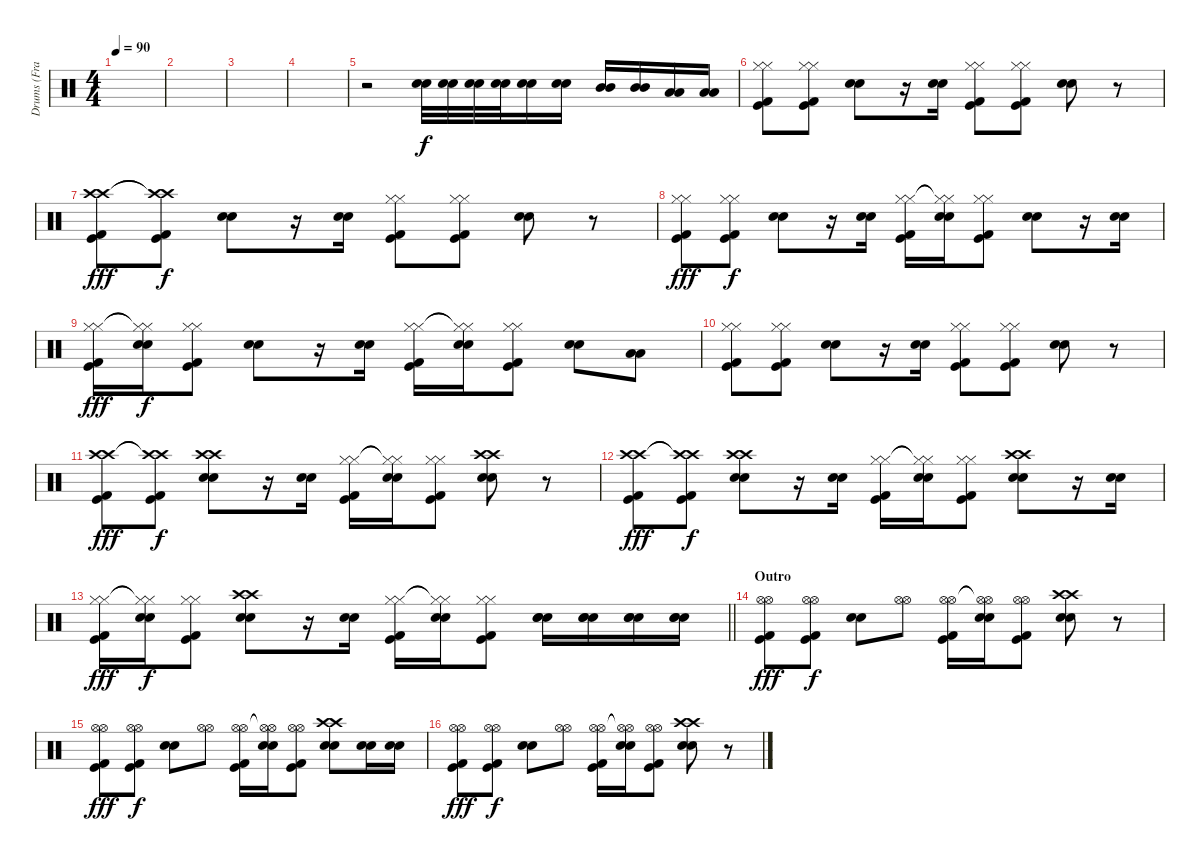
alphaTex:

\track ("Drums (Frank Ferrer)" "Drums (Fra") {instrument percussion}
\staff {score}
\articulation defaults
\ts (4 4)
\tempo 90
\clef neutral
\ks c
|
|
|
|
r.2 ("Snare (hit) 2" "Snare (hit) 2").32 ("Snare (hit) 2" "Snare (hit) 2").32 ("Snare (hit) 2" "Snare (hit) 2").32 ("Snare (hit) 2" "Snare (hit) 2").32 ("Snare (hit) 2" "Snare (hit) 2").16 ("Snare (hit) 2" "Snare (hit) 2").16 ("Mid Tom (hit)" "Mid Tom (hit)").16 ("Mid Tom (hit)" "Mid Tom (hit)").16 ("Low Tom (hit)" "Low Tom (hit)").16 ("Low Tom (hit)" "Low Tom (hit)").16 |
("Hi-Hat (closed)" "Hi-Hat (closed)" "Kick (hit)" "Kick (hit) 2").8 ("Hi-Hat (closed)" "Hi-Hat (closed)" "Kick (hit)" "Kick (hit) 2").8 ("Snare (hit) 2" "Snare (hit) 2").8 r.16 ("Snare (hit) 2" "Snare (hit) 2").16 ("Hi-Hat (closed)" "Hi-Hat (closed)" "Kick (hit)" "Kick (hit) 2").8 ("Hi-Hat (closed)" "Hi-Hat (closed)" "Kick (hit)" "Kick (hit) 2").8 ("Snare (hit) 2" "Snare (hit) 2").8 r.8 |
("Crash high (hit)" "Crash high (hit)" "Kick (hit)" "Kick (hit) 2").8{dy fff} ("Crash high (hit)"{t} "Crash high (hit)"{t} "Kick (hit)" "Kick (hit) 2").8{dy f} ("Snare (hit) 2" "Snare (hit) 2").8 r.16 ("Snare (hit) 2" "Snare (hit) 2").16 ("Hi-Hat (closed)" "Hi-Hat (closed)" "Kick (hit)" "Kick (hit) 2").8 ("Hi-Hat (closed)" "Hi-Hat (closed)" "Kick (hit)" "Kick (hit) 2").8 ("Snare (hit) 2" "Snare (hit) 2").8 r.8 |
("Hi-Hat (closed)" "Hi-Hat (closed)" "Kick (hit)" "Kick (hit) 2").8{dy fff} ("Hi-Hat (closed)" "Hi-Hat (closed)" "Kick (hit)" "Kick (hit) 2").8{dy f} ("Snare (hit) 2" "Snare (hit) 2").8 r.16 ("Snare (hit) 2" "Snare (hit) 2").16 ("Hi-Hat (closed)" "Hi-Hat (closed)" "Kick (hit)" "Kick (hit) 2").16 ("Hi-Hat (closed)"{t} "Hi-Hat (closed)"{t} "Snare (hit) 2" "Snare (hit) 2").16 ("Hi-Hat (closed)" "Hi-Hat (closed)" "Kick (hit)" "Kick (hit) 2").8 ("Snare (hit) 2" "Snare (hit) 2").8 r.16 ("Snare (hit) 2" "Snare (hit) 2").16 |
("Hi-Hat (closed)" "Hi-Hat (closed)" "Kick (hit)" "Kick (hit) 2").16{dy fff} ("Hi-Hat (closed)"{t} "Hi-Hat (closed)"{t} "Snare (hit) 2" "Snare (hit) 2").16{dy f} ("Hi-Hat (closed)" "Hi-Hat (closed)" "Kick (hit)" "Kick (hit) 2").8 ("Snare (hit) 2" "Snare (hit) 2").8 r.16 ("Snare (hit) 2" "Snare (hit) 2").16 ("Hi-Hat (closed)" "Hi-Hat (closed)" "Kick (hit)" "Kick (hit) 2").16 ("Hi-Hat (closed)"{t} "Hi-Hat (closed)"{t} "Snare (hit) 2" "Snare (hit) 2").16 ("Hi-Hat (closed)" "Hi-Hat (closed)" "Kick (hit)" "Kick (hit) 2").8 ("Snare (hit) 2" "Snare (hit) 2").8 ("Low Tom (hit)" "Low Tom (hit)").8 |
("Hi-Hat (closed)" "Hi-Hat (closed)" "Kick (hit)" "Kick (hit) 2").8 ("Hi-Hat (closed)" "Hi-Hat (closed)" "Kick (hit)" "Kick (hit) 2").8 ("Snare (hit) 2" "Snare (hit) 2").8 r.16 ("Snare (hit) 2" "Snare (hit) 2").16 ("Hi-Hat (closed)" "Hi-Hat (closed)" "Kick (hit)" "Kick (hit) 2").8 ("Hi-Hat (closed)" "Hi-Hat (closed)" "Kick (hit)" "Kick (hit) 2").8 ("Snare (hit) 2" "Snare (hit) 2").8 r.8 |
("Crash high (hit)" "Crash high (hit)" "Kick (hit)" "Kick (hit) 2").8{dy fff} ("Crash high (hit)"{t} "Crash high (hit)"{t} "Kick (hit)" "Kick (hit) 2").8{dy f} ("Crash high (hit)" "Crash high (hit)" "Snare (hit) 2" "Snare (hit) 2").8 r.16 ("Snare (hit) 2" "Snare (hit) 2").16 ("Hi-Hat (closed)" "Hi-Hat (closed)" "Kick (hit)" "Kick (hit) 2").16 ("Hi-Hat (closed)"{t} "Hi-Hat (closed)"{t} "Snare (hit) 2" "Snare (hit) 2").16 ("Hi-Hat (closed)" "Hi-Hat (closed)" "Kick (hit)" "Kick (hit) 2").8 ("Crash high (hit)" "Crash high (hit)" "Snare (hit) 2" "Snare (hit) 2").8 r.8 |
("Crash high (hit)" "Crash high (hit)" "Kick (hit)" "Kick (hit) 2").8{dy fff} ("Crash high (hit)"{t} "Crash high (hit)"{t} "Kick (hit)" "Kick (hit) 2").8{dy f} ("Crash high (hit)" "Crash high (hit)" "Snare (hit) 2" "Snare (hit) 2").8 r.16 ("Snare (hit) 2" "Snare (hit) 2").16 ("Hi-Hat (closed)" "Hi-Hat (closed)" "Kick (hit)" "Kick (hit) 2").16 ("Hi-Hat (closed)"{t} "Hi-Hat (closed)"{t} "Snare (hit) 2" "Snare (hit) 2").16 ("Hi-Hat (closed)" "Hi-Hat (closed)" "Kick (hit)" "Kick (hit) 2").8 ("Crash high (hit)" "Crash high (hit)" "Snare (hit) 2" "Snare (hit) 2").8 r.16 ("Snare (hit) 2" "Snare (hit) 2").16 |
\barLineRight lightlight
("Hi-Hat (closed)" "Hi-Hat (closed)" "Kick (hit)" "Kick (hit) 2").16{dy fff} ("Hi-Hat (closed)"{t} "Hi-Hat (closed)"{t} "Snare (hit) 2" "Snare (hit) 2").16{dy f} ("Hi-Hat (closed)" "Hi-Hat (closed)" "Kick (hit)" "Kick (hit) 2").8 ("Crash high (hit)" "Crash high (hit)" "Snare (hit) 2" "Snare (hit) 2").8 r.16 ("Snare (hit) 2" "Snare (hit) 2").16 ("Hi-Hat (closed)" "Hi-Hat (closed)" "Kick (hit)" "Kick (hit) 2").16 ("Hi-Hat (closed)"{t} "Hi-Hat (closed)"{t} "Snare (hit) 2" "Snare (hit) 2").16 ("Hi-Hat (closed)" "Hi-Hat (closed)" "Kick (hit)" "Kick (hit) 2").8 ("Snare (hit) 2" "Snare (hit) 2" "Snare (hit) 2").16 ("Snare (hit) 2" "Snare (hit) 2" "Snare (hit) 2").16 ("Snare (hit) 2" "Snare (hit) 2" "Snare (hit) 2").16 ("Snare (hit) 2" "Snare (hit) 2" "Snare (hit) 2").16 |
\section ("" "Outro")
("Hi-Hat (open)" "Hi-Hat (open)" "Kick (hit)" "Kick (hit) 2").8{dy fff} ("Hi-Hat (open)" "Hi-Hat (open)" "Kick (hit)" "Kick (hit) 2").8{dy f} ("Snare (hit) 2" "Snare (hit) 2").8 ("Hi-Hat (open)" "Hi-Hat (open)").8 ("Hi-Hat (open)" "Hi-Hat (open)" "Kick (hit)" "Kick (hit) 2").16 ("Hi-Hat (open)"{t} "Hi-Hat (open)"{t} "Snare (hit) 2" "Snare (hit) 2").16 ("Hi-Hat (open)" "Hi-Hat (open)" "Kick (hit)" "Kick (hit) 2").8 ("Crash high (hit)" "Crash high (hit)" "Snare (hit) 2" "Snare (hit) 2").8 r.8 |
("Hi-Hat (open)" "Hi-Hat (open)" "Kick (hit)" "Kick (hit) 2").8{dy fff} ("Hi-Hat (open)" "Hi-Hat (open)" "Kick (hit)" "Kick (hit) 2").8{dy f} ("Snare (hit) 2" "Snare (hit) 2").8 ("Hi-Hat (open)" "Hi-Hat (open)").8 ("Hi-Hat (open)" "Hi-Hat (open)" "Kick (hit)" "Kick (hit) 2").16 ("Hi-Hat (open)"{t} "Hi-Hat (open)"{t} "Snare (hit) 2" "Snare (hit) 2").16 ("Hi-Hat (open)" "Hi-Hat (open)" "Kick (hit)" "Kick (hit) 2").8 ("Crash high (hit)" "Crash high (hit)" "Snare (hit) 2" "Snare (hit) 2").8 ("Snare (hit) 2" "Snare (hit) 2").16 ("Snare (hit) 2" "Snare (hit) 2").16 |
("Hi-Hat (open)" "Hi-Hat (open)" "Kick (hit)" "Kick (hit) 2").8{dy fff} ("Hi-Hat (open)" "Hi-Hat (open)" "Kick (hit)" "Kick (hit) 2").8{dy f} ("Snare (hit) 2" "Snare (hit) 2").8 ("Hi-Hat (open)" "Hi-Hat (open)").8 ("Hi-Hat (open)" "Hi-Hat (open)" "Kick (hit)" "Kick (hit) 2").16 ("Hi-Hat (open)"{t} "Hi-Hat (open)"{t} "Snare (hit) 2" "Snare (hit) 2").16 ("Hi-Hat (open)" "Hi-Hat (open)" "Kick (hit)" "Kick (hit) 2").8 ("Crash high (hit)" "Crash high (hit)" "Snare (hit) 2" "Snare (hit) 2").8 r.8
